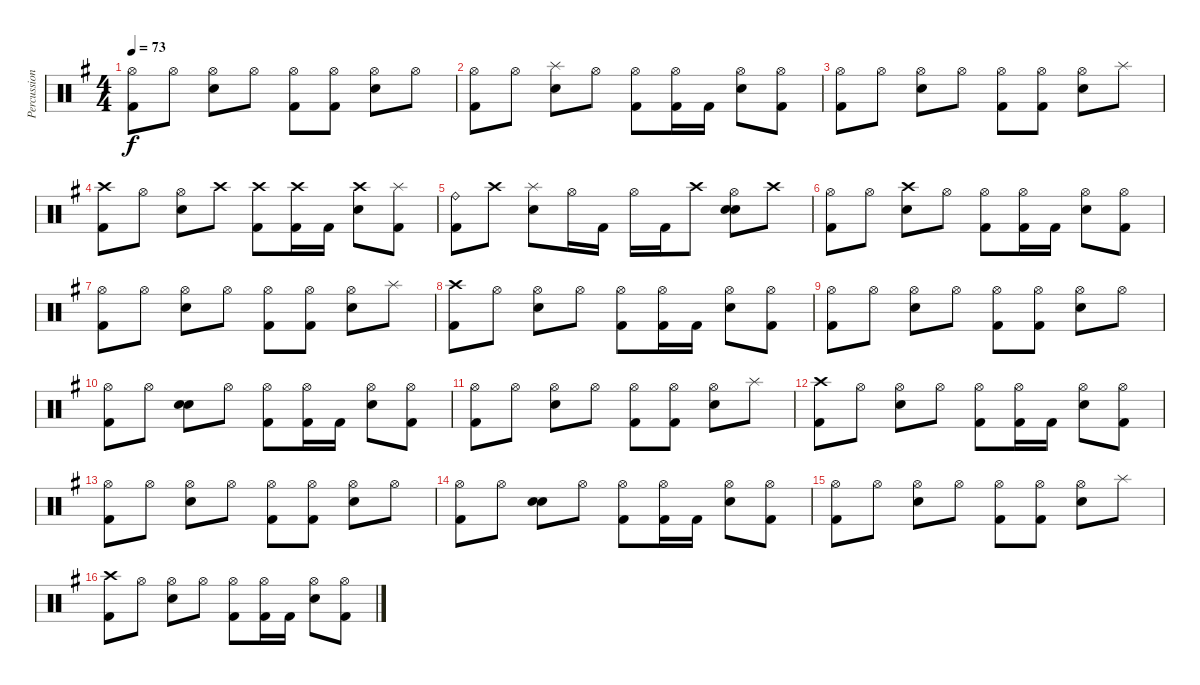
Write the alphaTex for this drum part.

\track ("Percussions" "Percussion") {instrument percussion}
\staff {score}
\articulation defaults
\ts (4 4)
\tempo 73
\clef neutral
\ks g
("Hi-Hat (open)" "Kick (hit) 2").8{dy f} "Hi-Hat (open)".8 ("Hi-Hat (open)" "Snare (hit) 2").8 "Hi-Hat (open)".8 ("Hi-Hat (open)" "Kick (hit) 2").8 ("Hi-Hat (open)" "Kick (hit) 2").8 ("Hi-Hat (open)" "Snare (hit) 2").8 "Hi-Hat (open)".8 |
("Hi-Hat (open)" "Kick (hit) 2").8 "Hi-Hat (open)".8 ("Splash (hit)" "Snare (hit) 2").8 "Hi-Hat (open)".8 ("Hi-Hat (open)" "Kick (hit) 2").8 ("Hi-Hat (open)" "Kick (hit) 2").16 "Kick (hit) 2".16 ("Hi-Hat (open)" "Snare (hit) 2").8 ("Hi-Hat (open)" "Kick (hit) 2").8 |
("Hi-Hat (open)" "Kick (hit) 2").8 "Hi-Hat (open)".8 ("Hi-Hat (open)" "Snare (hit) 2").8 "Hi-Hat (open)".8 ("Hi-Hat (open)" "Kick (hit) 2").8 ("Hi-Hat (open)" "Kick (hit) 2").8 ("Hi-Hat (open)" "Snare (hit) 2").8 "Splash (hit)".8 |
("Crash high (hit)" "Kick (hit) 2").8 "Hi-Hat (open)".8 ("Hi-Hat (open)" "Snare (hit) 2").8 "Crash high (hit)".8 ("Crash high (hit)" "Kick (hit) 2").8 ("Crash high (hit)" "Kick (hit) 2").16 "Kick (hit) 2".16 ("Crash high (hit)" "Snare (hit) 2").8 ("Splash (hit)" "Kick (hit) 2").8 |
("Ride (bell)" "Kick (hit) 2").8 "Crash high (hit)".8 ("Splash (hit)" "Snare (hit) 2").8 "Hi-Hat (open)".16 "Kick (hit) 2".16 "Hi-Hat (open)".16 "Kick (hit) 2".16 "Crash high (hit)".8 ("Hi-Hat (open)" "Snare (hit) 2" "Snare (hit) 2").8 "Crash high (hit)".8 |
("Hi-Hat (open)" "Kick (hit) 2").8 "Hi-Hat (open)".8 ("Crash high (hit)" "Snare (hit) 2").8 "Hi-Hat (open)".8 ("Hi-Hat (open)" "Kick (hit) 2").8 ("Hi-Hat (open)" "Kick (hit) 2").16 "Kick (hit) 2".16 ("Hi-Hat (open)" "Snare (hit) 2").8 ("Hi-Hat (open)" "Kick (hit) 2").8 |
("Hi-Hat (open)" "Kick (hit) 2").8 "Hi-Hat (open)".8 ("Hi-Hat (open)" "Snare (hit) 2").8 "Hi-Hat (open)".8 ("Hi-Hat (open)" "Kick (hit) 2").8 ("Hi-Hat (open)" "Kick (hit) 2").8 ("Hi-Hat (open)" "Snare (hit) 2").8 "Splash (hit)".8 |
("Crash high (hit)" "Kick (hit) 2").8 "Hi-Hat (open)".8 ("Hi-Hat (open)" "Snare (hit) 2").8 "Hi-Hat (open)".8 ("Hi-Hat (open)" "Kick (hit) 2").8 ("Hi-Hat (open)" "Kick (hit) 2").16 "Kick (hit) 2".16 ("Hi-Hat (open)" "Snare (hit) 2").8 ("Hi-Hat (open)" "Kick (hit) 2").8 |
("Hi-Hat (open)" "Kick (hit) 2").8 "Hi-Hat (open)".8 ("Hi-Hat (open)" "Snare (hit) 2").8 "Hi-Hat (open)".8 ("Hi-Hat (open)" "Kick (hit) 2").8 ("Hi-Hat (open)" "Kick (hit) 2").8 ("Hi-Hat (open)" "Snare (hit) 2").8 "Hi-Hat (open)".8 |
("Hi-Hat (open)" "Kick (hit) 2").8 "Hi-Hat (open)".8 ("Snare (hit)" "Snare (hit) 2").8 "Hi-Hat (open)".8 ("Hi-Hat (open)" "Kick (hit) 2").8 ("Hi-Hat (open)" "Kick (hit) 2").16 "Kick (hit) 2".16 ("Hi-Hat (open)" "Snare (hit) 2").8 ("Hi-Hat (open)" "Kick (hit) 2").8 |
("Hi-Hat (open)" "Kick (hit) 2").8 "Hi-Hat (open)".8 ("Hi-Hat (open)" "Snare (hit) 2").8 "Hi-Hat (open)".8 ("Hi-Hat (open)" "Kick (hit) 2").8 ("Hi-Hat (open)" "Kick (hit) 2").8 ("Hi-Hat (open)" "Snare (hit) 2").8 "Splash (hit)".8 |
("Crash high (hit)" "Kick (hit) 2").8 "Hi-Hat (open)".8 ("Hi-Hat (open)" "Snare (hit) 2").8 "Hi-Hat (open)".8 ("Hi-Hat (open)" "Kick (hit) 2").8 ("Hi-Hat (open)" "Kick (hit) 2").16 "Kick (hit) 2".16 ("Hi-Hat (open)" "Snare (hit) 2").8 ("Hi-Hat (open)" "Kick (hit) 2").8 |
("Hi-Hat (open)" "Kick (hit) 2").8 "Hi-Hat (open)".8 ("Hi-Hat (open)" "Snare (hit) 2").8 "Hi-Hat (open)".8 ("Hi-Hat (open)" "Kick (hit) 2").8 ("Hi-Hat (open)" "Kick (hit) 2").8 ("Hi-Hat (open)" "Snare (hit) 2").8 "Hi-Hat (open)".8 |
("Hi-Hat (open)" "Kick (hit) 2").8 "Hi-Hat (open)".8 ("Snare (hit)" "Snare (hit) 2").8 "Hi-Hat (open)".8 ("Hi-Hat (open)" "Kick (hit) 2").8 ("Hi-Hat (open)" "Kick (hit) 2").16 "Kick (hit) 2".16 ("Hi-Hat (open)" "Snare (hit) 2").8 ("Hi-Hat (open)" "Kick (hit) 2").8 |
("Hi-Hat (open)" "Kick (hit) 2").8 "Hi-Hat (open)".8 ("Hi-Hat (open)" "Snare (hit) 2").8 "Hi-Hat (open)".8 ("Hi-Hat (open)" "Kick (hit) 2").8 ("Hi-Hat (open)" "Kick (hit) 2").8 ("Hi-Hat (open)" "Snare (hit) 2").8 "Splash (hit)".8 |
("Crash high (hit)" "Kick (hit) 2").8 "Hi-Hat (open)".8 ("Hi-Hat (open)" "Snare (hit) 2").8 "Hi-Hat (open)".8 ("Hi-Hat (open)" "Kick (hit) 2").8 ("Hi-Hat (open)" "Kick (hit) 2").16 "Kick (hit) 2".16 ("Hi-Hat (open)" "Snare (hit) 2").8 ("Hi-Hat (open)" "Kick (hit) 2").8
